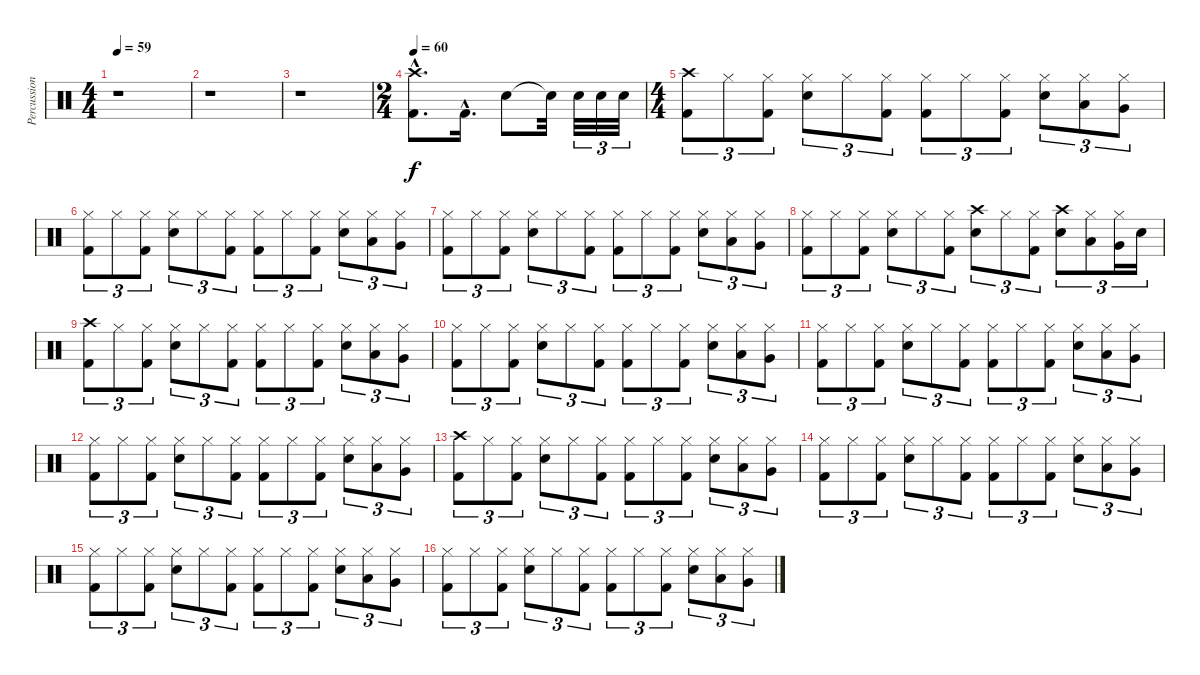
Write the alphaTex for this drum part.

\track ("Percussion" "Percussion") {instrument percussion}
\staff {score}
\articulation defaults
\ts (4 4)
\tempo 59
\clef neutral
\ks c
r.1{dy f} |
r.1 |
r.1 |
\ts (2 4)
\tempo 60
("Crash high (hit)"{hac} "Kick (hit) 2"{hac}).8{d} "Kick (hit) 2"{hac}.16{d} "Snare (hit) 2".8 "Snare (hit)"{t}.32 "Snare (hit) 2".32{tu (3 2)} "Snare (hit) 2".32{tu (3 2)} "Snare (hit) 2".32{tu (3 2)} |
\ts (4 4)
("Crash high (hit)" "Kick (hit) 2").8{tu (3 2)} "Hi-Hat (closed)".8{tu (3 2)} ("Hi-Hat (closed)" "Kick (hit) 2").8{tu (3 2)} ("Hi-Hat (closed)" "Snare (hit) 2").8{tu (3 2)} "Hi-Hat (closed)".8{tu (3 2)} ("Hi-Hat (closed)" "Kick (hit) 2").8{tu (3 2)} ("Hi-Hat (closed)" "Kick (hit) 2").8{tu (3 2)} "Hi-Hat (closed)".8{tu (3 2)} ("Hi-Hat (closed)" "Kick (hit) 2").8{tu (3 2)} ("Hi-Hat (closed)" "Snare (hit) 2").8{tu (3 2)} ("Hi-Hat (closed)" "Low Tom (hit)").8{tu (3 2)} ("Hi-Hat (closed)" "Very Low Tom (hit)").8{tu (3 2)} |
("Hi-Hat (closed)" "Kick (hit) 2").8{tu (3 2)} "Hi-Hat (closed)".8{tu (3 2)} ("Hi-Hat (closed)" "Kick (hit) 2").8{tu (3 2)} ("Hi-Hat (closed)" "Snare (hit) 2").8{tu (3 2)} "Hi-Hat (closed)".8{tu (3 2)} ("Hi-Hat (closed)" "Kick (hit) 2").8{tu (3 2)} ("Hi-Hat (closed)" "Kick (hit) 2").8{tu (3 2)} "Hi-Hat (closed)".8{tu (3 2)} ("Hi-Hat (closed)" "Kick (hit) 2").8{tu (3 2)} ("Hi-Hat (closed)" "Snare (hit) 2").8{tu (3 2)} ("Hi-Hat (closed)" "Low Tom (hit)").8{tu (3 2)} ("Hi-Hat (closed)" "Very Low Tom (hit)").8{tu (3 2)} |
("Hi-Hat (closed)" "Kick (hit) 2").8{tu (3 2)} "Hi-Hat (closed)".8{tu (3 2)} ("Hi-Hat (closed)" "Kick (hit) 2").8{tu (3 2)} ("Hi-Hat (closed)" "Snare (hit) 2").8{tu (3 2)} "Hi-Hat (closed)".8{tu (3 2)} ("Hi-Hat (closed)" "Kick (hit) 2").8{tu (3 2)} ("Hi-Hat (closed)" "Kick (hit) 2").8{tu (3 2)} "Hi-Hat (closed)".8{tu (3 2)} ("Hi-Hat (closed)" "Kick (hit) 2").8{tu (3 2)} ("Hi-Hat (closed)" "Snare (hit) 2").8{tu (3 2)} ("Hi-Hat (closed)" "Low Tom (hit)").8{tu (3 2)} ("Hi-Hat (closed)" "Very Low Tom (hit)").8{tu (3 2)} |
("Hi-Hat (closed)" "Kick (hit) 2").8{tu (3 2)} "Hi-Hat (closed)".8{tu (3 2)} ("Hi-Hat (closed)" "Kick (hit) 2").8{tu (3 2)} ("Hi-Hat (closed)" "Snare (hit) 2").8{tu (3 2)} "Hi-Hat (closed)".8{tu (3 2)} ("Hi-Hat (closed)" "Kick (hit) 2").8{tu (3 2)} ("Crash high (hit)" "Snare (hit) 2").8{tu (3 2)} "Hi-Hat (closed)".8{tu (3 2)} ("Hi-Hat (closed)" "Kick (hit) 2").8{tu (3 2)} ("Crash high (hit)" "Snare (hit) 2").8{tu (3 2)} ("Hi-Hat (closed)" "Low Tom (hit)").8{tu (3 2)} ("Hi-Hat (closed)" "Very Low Tom (hit)").16{tu (3 2)} "Snare (hit) 2".16{tu (3 2)} |
("Crash high (hit)" "Kick (hit) 2").8{tu (3 2)} "Hi-Hat (closed)".8{tu (3 2)} ("Hi-Hat (closed)" "Kick (hit) 2").8{tu (3 2)} ("Hi-Hat (closed)" "Snare (hit) 2").8{tu (3 2)} "Hi-Hat (closed)".8{tu (3 2)} ("Hi-Hat (closed)" "Kick (hit) 2").8{tu (3 2)} ("Hi-Hat (closed)" "Kick (hit) 2").8{tu (3 2)} "Hi-Hat (closed)".8{tu (3 2)} ("Hi-Hat (closed)" "Kick (hit) 2").8{tu (3 2)} ("Hi-Hat (closed)" "Snare (hit) 2").8{tu (3 2)} ("Hi-Hat (closed)" "Low Tom (hit)").8{tu (3 2)} ("Hi-Hat (closed)" "Very Low Tom (hit)").8{tu (3 2)} |
("Hi-Hat (closed)" "Kick (hit) 2").8{tu (3 2)} "Hi-Hat (closed)".8{tu (3 2)} ("Hi-Hat (closed)" "Kick (hit) 2").8{tu (3 2)} ("Hi-Hat (closed)" "Snare (hit) 2").8{tu (3 2)} "Hi-Hat (closed)".8{tu (3 2)} ("Hi-Hat (closed)" "Kick (hit) 2").8{tu (3 2)} ("Hi-Hat (closed)" "Kick (hit) 2").8{tu (3 2)} "Hi-Hat (closed)".8{tu (3 2)} ("Hi-Hat (closed)" "Kick (hit) 2").8{tu (3 2)} ("Hi-Hat (closed)" "Snare (hit) 2").8{tu (3 2)} ("Hi-Hat (closed)" "Low Tom (hit)").8{tu (3 2)} ("Hi-Hat (closed)" "Very Low Tom (hit)").8{tu (3 2)} |
("Hi-Hat (closed)" "Kick (hit) 2").8{tu (3 2)} "Hi-Hat (closed)".8{tu (3 2)} ("Hi-Hat (closed)" "Kick (hit) 2").8{tu (3 2)} ("Hi-Hat (closed)" "Snare (hit) 2").8{tu (3 2)} "Hi-Hat (closed)".8{tu (3 2)} ("Hi-Hat (closed)" "Kick (hit) 2").8{tu (3 2)} ("Hi-Hat (closed)" "Kick (hit) 2").8{tu (3 2)} "Hi-Hat (closed)".8{tu (3 2)} ("Hi-Hat (closed)" "Kick (hit) 2").8{tu (3 2)} ("Hi-Hat (closed)" "Snare (hit) 2").8{tu (3 2)} ("Hi-Hat (closed)" "Low Tom (hit)").8{tu (3 2)} ("Hi-Hat (closed)" "Very Low Tom (hit)").8{tu (3 2)} |
("Hi-Hat (closed)" "Kick (hit) 2").8{tu (3 2)} "Hi-Hat (closed)".8{tu (3 2)} ("Hi-Hat (closed)" "Kick (hit) 2").8{tu (3 2)} ("Hi-Hat (closed)" "Snare (hit) 2").8{tu (3 2)} "Hi-Hat (closed)".8{tu (3 2)} ("Hi-Hat (closed)" "Kick (hit) 2").8{tu (3 2)} ("Hi-Hat (closed)" "Kick (hit) 2").8{tu (3 2)} "Hi-Hat (closed)".8{tu (3 2)} ("Hi-Hat (closed)" "Kick (hit) 2").8{tu (3 2)} ("Hi-Hat (closed)" "Snare (hit) 2").8{tu (3 2)} ("Hi-Hat (closed)" "Low Tom (hit)").8{tu (3 2)} ("Hi-Hat (closed)" "Very Low Tom (hit)").8{tu (3 2)} |
("Crash high (hit)" "Kick (hit) 2").8{tu (3 2)} "Hi-Hat (closed)".8{tu (3 2)} ("Hi-Hat (closed)" "Kick (hit) 2").8{tu (3 2)} ("Hi-Hat (closed)" "Snare (hit) 2").8{tu (3 2)} "Hi-Hat (closed)".8{tu (3 2)} ("Hi-Hat (closed)" "Kick (hit) 2").8{tu (3 2)} ("Hi-Hat (closed)" "Kick (hit) 2").8{tu (3 2)} "Hi-Hat (closed)".8{tu (3 2)} ("Hi-Hat (closed)" "Kick (hit) 2").8{tu (3 2)} ("Hi-Hat (closed)" "Snare (hit) 2").8{tu (3 2)} ("Hi-Hat (closed)" "Low Tom (hit)").8{tu (3 2)} ("Hi-Hat (closed)" "Very Low Tom (hit)").8{tu (3 2)} |
("Hi-Hat (closed)" "Kick (hit) 2").8{tu (3 2)} "Hi-Hat (closed)".8{tu (3 2)} ("Hi-Hat (closed)" "Kick (hit) 2").8{tu (3 2)} ("Hi-Hat (closed)" "Snare (hit) 2").8{tu (3 2)} "Hi-Hat (closed)".8{tu (3 2)} ("Hi-Hat (closed)" "Kick (hit) 2").8{tu (3 2)} ("Hi-Hat (closed)" "Kick (hit) 2").8{tu (3 2)} "Hi-Hat (closed)".8{tu (3 2)} ("Hi-Hat (closed)" "Kick (hit) 2").8{tu (3 2)} ("Hi-Hat (closed)" "Snare (hit) 2").8{tu (3 2)} ("Hi-Hat (closed)" "Low Tom (hit)").8{tu (3 2)} ("Hi-Hat (closed)" "Very Low Tom (hit)").8{tu (3 2)} |
("Hi-Hat (closed)" "Kick (hit) 2").8{tu (3 2)} "Hi-Hat (closed)".8{tu (3 2)} ("Hi-Hat (closed)" "Kick (hit) 2").8{tu (3 2)} ("Hi-Hat (closed)" "Snare (hit) 2").8{tu (3 2)} "Hi-Hat (closed)".8{tu (3 2)} ("Hi-Hat (closed)" "Kick (hit) 2").8{tu (3 2)} ("Hi-Hat (closed)" "Kick (hit) 2").8{tu (3 2)} "Hi-Hat (closed)".8{tu (3 2)} ("Hi-Hat (closed)" "Kick (hit) 2").8{tu (3 2)} ("Hi-Hat (closed)" "Snare (hit) 2").8{tu (3 2)} ("Hi-Hat (closed)" "Low Tom (hit)").8{tu (3 2)} ("Hi-Hat (closed)" "Very Low Tom (hit)").8{tu (3 2)} |
("Hi-Hat (closed)" "Kick (hit) 2").8{tu (3 2)} "Hi-Hat (closed)".8{tu (3 2)} ("Hi-Hat (closed)" "Kick (hit) 2").8{tu (3 2)} ("Hi-Hat (closed)" "Snare (hit) 2").8{tu (3 2)} "Hi-Hat (closed)".8{tu (3 2)} ("Hi-Hat (closed)" "Kick (hit) 2").8{tu (3 2)} ("Hi-Hat (closed)" "Kick (hit) 2").8{tu (3 2)} "Hi-Hat (closed)".8{tu (3 2)} ("Hi-Hat (closed)" "Kick (hit) 2").8{tu (3 2)} ("Hi-Hat (closed)" "Snare (hit) 2").8{tu (3 2)} ("Hi-Hat (closed)" "Low Tom (hit)").8{tu (3 2)} ("Hi-Hat (closed)" "Very Low Tom (hit)").8{tu (3 2)}
